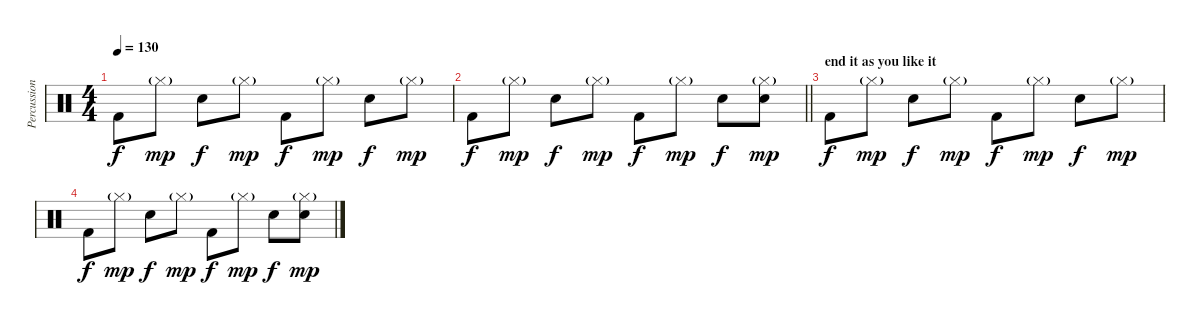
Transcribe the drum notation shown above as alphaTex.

\track ("Percussion" "Percussion") {instrument percussion}
\staff {score}
\articulation defaults
\ts (4 4)
\tempo 130
\clef neutral
\ks c "Kick (hit) 2".8{dy f} "Hi-Hat (closed)"{g}.8{dy mp} "Electric Snare (hit)".8{dy f} "Hi-Hat (closed)"{g}.8{dy mp} "Kick (hit) 2".8{dy f} "Hi-Hat (closed)"{g}.8{dy mp} "Electric Snare (hit)".8{dy f} "Hi-Hat (closed)"{g}.8{dy mp}
|
\barLineRight lightlight "Kick (hit) 2".8{dy f} "Hi-Hat (closed)"{g}.8{dy mp} "Electric Snare (hit)".8{dy f} "Hi-Hat (closed)"{g}.8{dy mp} "Kick (hit) 2".8{dy f} "Hi-Hat (closed)"{g}.8{dy mp} "Electric Snare (hit)".8{dy f}
("Hi-Hat (closed)"{g} "Electric Snare (hit)").8{dy mp} |
\section ("" "end it as you like it")
"Kick (hit) 2".8{dy f} "Hi-Hat (closed)"{g}.8{dy mp} "Electric Snare (hit)".8{dy f} "Hi-Hat (closed)"{g}.8{dy mp} "Kick (hit) 2".8{dy f} "Hi-Hat (closed)"{g}.8{dy mp} "Electric Snare (hit)".8{dy f} "Hi-Hat (closed)"{g}.8{dy mp} |
"Kick (hit) 2".8{dy f} "Hi-Hat (closed)"{g}.8{dy mp} "Electric Snare (hit)".8{dy f} "Hi-Hat (closed)"{g}.8{dy mp} "Kick (hit) 2".8{dy f} "Hi-Hat (closed)"{g}.8{dy mp} "Electric Snare (hit)".8{dy f} ("Hi-Hat (closed)"{g} "Electric Snare (hit)").8{dy mp}
